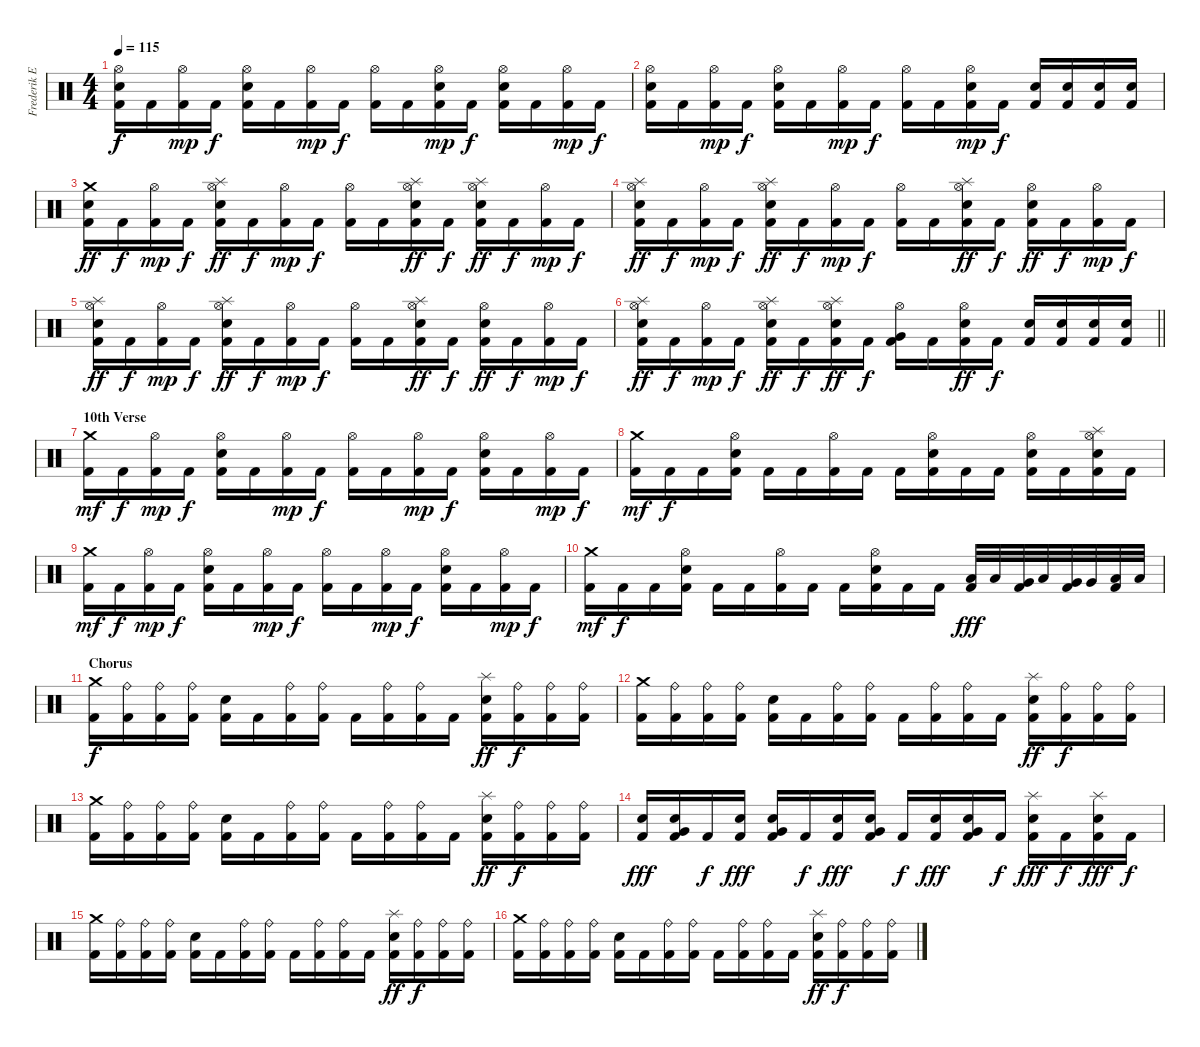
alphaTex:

\track ("Frederik Ehmke" "Frederik E") {instrument percussion}
\staff {score}
\articulation defaults
\ts (4 4)
\tempo 115
\clef neutral
\ks c
("Hi-Hat (open)" "Electric Snare (hit)" "Kick (hit) 2").16{dy f} "Kick (hit) 2".16 ("Hi-Hat (open)" "Kick (hit) 2").16{dy mp} "Kick (hit) 2".16{dy f} ("Hi-Hat (open)" "Electric Snare (hit)" "Kick (hit) 2").16 "Kick (hit) 2".16 ("Hi-Hat (open)" "Kick (hit) 2").16{dy mp} "Kick (hit) 2".16{dy f} ("Hi-Hat (open)" "Kick (hit) 2").16 "Kick (hit) 2".16 ("Hi-Hat (open)" "Electric Snare (hit)" "Kick (hit) 2").16{dy mp} "Kick (hit) 2".16{dy f} ("Hi-Hat (open)" "Electric Snare (hit)" "Kick (hit) 2").16 "Kick (hit) 2".16 ("Hi-Hat (open)" "Kick (hit) 2").16{dy mp} "Kick (hit) 2".16{dy f} |
("Hi-Hat (open)" "Electric Snare (hit)" "Kick (hit) 2").16 "Kick (hit) 2".16 ("Hi-Hat (open)" "Kick (hit) 2").16{dy mp} "Kick (hit) 2".16{dy f} ("Hi-Hat (open)" "Electric Snare (hit)" "Kick (hit) 2").16 "Kick (hit) 2".16 ("Hi-Hat (open)" "Kick (hit) 2").16{dy mp} "Kick (hit) 2".16{dy f} ("Hi-Hat (open)" "Kick (hit) 2").16 "Kick (hit) 2".16 ("Hi-Hat (open)" "Electric Snare (hit)" "Kick (hit) 2").16{dy mp} "Kick (hit) 2".16{dy f} ("Electric Snare (hit)" "Kick (hit) 2").16 ("Electric Snare (hit)" "Kick (hit) 2").16 ("Electric Snare (hit)" "Kick (hit) 2").16 ("Electric Snare (hit)" "Kick (hit) 2").16 |
("Crash medium (hit)" "Electric Snare (hit)" "Kick (hit) 2").16{dy ff} "Kick (hit) 2".16{dy f} ("Hi-Hat (open)" "Kick (hit) 2").16{dy mp} "Kick (hit) 2".16{dy f} ("Hi-Hat (open)" "Splash (hit)" "Electric Snare (hit)" "Kick (hit) 2").16{dy ff} "Kick (hit) 2".16{dy f} ("Hi-Hat (open)" "Kick (hit) 2").16{dy mp} "Kick (hit) 2".16{dy f} ("Hi-Hat (open)" "Kick (hit) 2").16 "Kick (hit) 2".16 ("Hi-Hat (open)" "Splash (hit)" "Electric Snare (hit)" "Kick (hit) 2").16{dy ff} "Kick (hit) 2".16{dy f} ("Hi-Hat (open)" "Splash (hit)" "Electric Snare (hit)" "Kick (hit) 2").16{dy ff} "Kick (hit) 2".16{dy f} ("Hi-Hat (open)" "Kick (hit) 2").16{dy mp} "Kick (hit) 2".16{dy f} |
("Hi-Hat (open)" "Splash (hit)" "Electric Snare (hit)" "Kick (hit) 2").16{dy ff} "Kick (hit) 2".16{dy f} ("Hi-Hat (open)" "Kick (hit) 2").16{dy mp} "Kick (hit) 2".16{dy f} ("Hi-Hat (open)" "Splash (hit)" "Electric Snare (hit)" "Kick (hit) 2").16{dy ff} "Kick (hit) 2".16{dy f} ("Hi-Hat (open)" "Kick (hit) 2").16{dy mp} "Kick (hit) 2".16{dy f} ("Hi-Hat (open)" "Kick (hit) 2").16 "Kick (hit) 2".16 ("Hi-Hat (open)" "Splash (hit)" "Electric Snare (hit)" "Kick (hit) 2").16{dy ff} "Kick (hit) 2".16{dy f} ("Hi-Hat (open)" "Electric Snare (hit)" "Kick (hit) 2").16{dy ff} "Kick (hit) 2".16{dy f} ("Hi-Hat (open)" "Kick (hit) 2").16{dy mp} "Kick (hit) 2".16{dy f} |
("Hi-Hat (open)" "Splash (hit)" "Electric Snare (hit)" "Kick (hit) 2").16{dy ff} "Kick (hit) 2".16{dy f} ("Hi-Hat (open)" "Kick (hit) 2").16{dy mp} "Kick (hit) 2".16{dy f} ("Hi-Hat (open)" "Splash (hit)" "Electric Snare (hit)" "Kick (hit) 2").16{dy ff} "Kick (hit) 2".16{dy f} ("Hi-Hat (open)" "Kick (hit) 2").16{dy mp} "Kick (hit) 2".16{dy f} ("Hi-Hat (open)" "Kick (hit) 2").16 "Kick (hit) 2".16 ("Hi-Hat (open)" "Splash (hit)" "Electric Snare (hit)" "Kick (hit) 2").16{dy ff} "Kick (hit) 2".16{dy f} ("Hi-Hat (open)" "Electric Snare (hit)" "Kick (hit) 2").16{dy ff} "Kick (hit) 2".16{dy f} ("Hi-Hat (open)" "Kick (hit) 2").16{dy mp} "Kick (hit) 2".16{dy f} |
\barLineRight lightlight
("Hi-Hat (open)" "Splash (hit)" "Electric Snare (hit)" "Kick (hit) 2").16{dy ff} "Kick (hit) 2".16{dy f} ("Hi-Hat (open)" "Kick (hit) 2").16{dy mp} "Kick (hit) 2".16{dy f} ("Hi-Hat (open)" "Splash (hit)" "Electric Snare (hit)" "Kick (hit) 2").16{dy ff} "Kick (hit) 2".16{dy f} ("Hi-Hat (open)" "Splash (hit)" "Electric Snare (hit)" "Kick (hit) 2").16{dy ff} "Kick (hit) 2".16{dy f} ("Hi-Hat (open)" "Very Low Tom (hit)" "Kick (hit) 2").16 "Kick (hit) 2".16 ("Hi-Hat (open)" "Electric Snare (hit)" "Kick (hit) 2").16{dy ff} "Kick (hit) 2".16{dy f} ("Electric Snare (hit)" "Kick (hit) 2").16 ("Electric Snare (hit)" "Kick (hit) 2").16 ("Electric Snare (hit)" "Kick (hit) 2").16 ("Electric Snare (hit)" "Kick (hit) 2").16 |
\section ("" "10th Verse")
("Crash medium (hit)" "Kick (hit) 2").16{dy mf} "Kick (hit) 2".16{dy f} ("Hi-Hat (open)" "Kick (hit) 2").16{dy mp} "Kick (hit) 2".16{dy f} ("Hi-Hat (open)" "Electric Snare (hit)" "Kick (hit) 2").16 "Kick (hit) 2".16 ("Hi-Hat (open)" "Kick (hit) 2").16{dy mp} "Kick (hit) 2".16{dy f} ("Hi-Hat (open)" "Kick (hit) 2").16 "Kick (hit) 2".16 ("Hi-Hat (open)" "Kick (hit) 2").16{dy mp} "Kick (hit) 2".16{dy f} ("Hi-Hat (open)" "Electric Snare (hit)" "Kick (hit) 2").16 "Kick (hit) 2".16 ("Hi-Hat (open)" "Kick (hit) 2").16{dy mp} "Kick (hit) 2".16{dy f} |
("Crash medium (hit)" "Kick (hit) 2").16{dy mf} "Kick (hit) 2".16{dy f} "Kick (hit) 2".16 ("Hi-Hat (open)" "Electric Snare (hit)" "Kick (hit) 2").16 "Kick (hit) 2".16 "Kick (hit) 2".16 ("Hi-Hat (open)" "Kick (hit) 2").16 "Kick (hit) 2".16 "Kick (hit) 2".16 ("Hi-Hat (open)" "Electric Snare (hit)" "Kick (hit) 2").16 "Kick (hit) 2".16 "Kick (hit) 2".16 ("Hi-Hat (open)" "Electric Snare (hit)" "Kick (hit) 2").16 "Kick (hit) 2".16 ("Hi-Hat (open)" "Splash (hit)" "Electric Snare (hit)" "Kick (hit) 2").16 "Kick (hit) 2".16 |
("Crash medium (hit)" "Kick (hit) 2").16{dy mf} "Kick (hit) 2".16{dy f} ("Hi-Hat (open)" "Kick (hit) 2").16{dy mp} "Kick (hit) 2".16{dy f} ("Hi-Hat (open)" "Electric Snare (hit)" "Kick (hit) 2").16 "Kick (hit) 2".16 ("Hi-Hat (open)" "Kick (hit) 2").16{dy mp} "Kick (hit) 2".16{dy f} ("Hi-Hat (open)" "Kick (hit) 2").16 "Kick (hit) 2".16 ("Hi-Hat (open)" "Kick (hit) 2").16{dy mp} "Kick (hit) 2".16{dy f} ("Hi-Hat (open)" "Electric Snare (hit)" "Kick (hit) 2").16 "Kick (hit) 2".16 ("Hi-Hat (open)" "Kick (hit) 2").16{dy mp} "Kick (hit) 2".16{dy f} |
("Crash medium (hit)" "Kick (hit) 2").16{dy mf} "Kick (hit) 2".16{dy f} "Kick (hit) 2".16 ("Hi-Hat (open)" "Electric Snare (hit)" "Kick (hit) 2").16 "Kick (hit) 2".16 "Kick (hit) 2".16 ("Hi-Hat (open)" "Kick (hit) 2").16 "Kick (hit) 2".16 "Kick (hit) 2".16 ("Hi-Hat (open)" "Electric Snare (hit)" "Kick (hit) 2").16 "Kick (hit) 2".16 "Kick (hit) 2".16 ("Low Tom (hit)" "Kick (hit) 2").32{dy fff} "Low Tom (hit)".32 ("Very Low Tom (hit)" "Kick (hit) 2").32 "Low Floor Tom (hit)".32 ("Very Low Tom (hit)" "Kick (hit) 2").32 "Very Low Tom (hit)".32 ("Low Floor Tom (hit)" "Kick (hit) 2").32 "Low Floor Tom (hit)".32 |
\section ("" "Chorus")
("Crash medium (hit)" "Kick (hit) 2").16{dy f} ("Ride (bell)" "Kick (hit) 2").16 ("Ride (bell)" "Kick (hit) 2").16 ("Ride (bell)" "Kick (hit) 2").16 ("Electric Snare (hit)" "Kick (hit) 2").16 "Kick (hit) 2".16 ("Ride (bell)" "Kick (hit) 2").16 ("Ride (bell)" "Kick (hit) 2").16 "Kick (hit) 2".16 ("Ride (bell)" "Kick (hit) 2").16 ("Ride (bell)" "Kick (hit) 2").16 "Kick (hit) 2".16 ("Splash (hit)" "Electric Snare (hit)" "Kick (hit) 2").16{dy ff} ("Ride (bell)" "Kick (hit) 2").16{dy f} ("Ride (bell)" "Kick (hit) 2").16 ("Ride (bell)" "Kick (hit) 2").16 |
("Crash medium (hit)" "Kick (hit) 2").16 ("Ride (bell)" "Kick (hit) 2").16 ("Ride (bell)" "Kick (hit) 2").16 ("Ride (bell)" "Kick (hit) 2").16 ("Electric Snare (hit)" "Kick (hit) 2").16 "Kick (hit) 2".16 ("Ride (bell)" "Kick (hit) 2").16 ("Ride (bell)" "Kick (hit) 2").16 "Kick (hit) 2".16 ("Ride (bell)" "Kick (hit) 2").16 ("Ride (bell)" "Kick (hit) 2").16 "Kick (hit) 2".16 ("Splash (hit)" "Electric Snare (hit)" "Kick (hit) 2").16{dy ff} ("Ride (bell)" "Kick (hit) 2").16{dy f} ("Ride (bell)" "Kick (hit) 2").16 ("Ride (bell)" "Kick (hit) 2").16 |
("Crash medium (hit)" "Kick (hit) 2").16 ("Ride (bell)" "Kick (hit) 2").16 ("Ride (bell)" "Kick (hit) 2").16 ("Ride (bell)" "Kick (hit) 2").16 ("Electric Snare (hit)" "Kick (hit) 2").16 "Kick (hit) 2".16 ("Ride (bell)" "Kick (hit) 2").16 ("Ride (bell)" "Kick (hit) 2").16 "Kick (hit) 2".16 ("Ride (bell)" "Kick (hit) 2").16 ("Ride (bell)" "Kick (hit) 2").16 "Kick (hit) 2".16 ("Splash (hit)" "Electric Snare (hit)" "Kick (hit) 2").16{dy ff} ("Ride (bell)" "Kick (hit) 2").16{dy f} ("Ride (bell)" "Kick (hit) 2").16 ("Ride (bell)" "Kick (hit) 2").16 |
("Electric Snare (hit)" "Kick (hit) 2").16{dy fff} ("Electric Snare (hit)" "Very Low Tom (hit)" "Kick (hit) 2").16 "Kick (hit) 2".16{dy f} ("Electric Snare (hit)" "Kick (hit) 2").16{dy fff} ("Electric Snare (hit)" "Very Low Tom (hit)" "Kick (hit) 2").16 "Kick (hit) 2".16{dy f} ("Electric Snare (hit)" "Kick (hit) 2").16{dy fff} ("Electric Snare (hit)" "Very Low Tom (hit)" "Kick (hit) 2").16 "Kick (hit) 2".16{dy f} ("Electric Snare (hit)" "Kick (hit) 2").16{dy fff} ("Electric Snare (hit)" "Very Low Tom (hit)" "Kick (hit) 2").16 "Kick (hit) 2".16{dy f} ("Splash (hit)" "Electric Snare (hit)" "Kick (hit) 2").16{dy fff} "Kick (hit) 2".16{dy f} ("Splash (hit)" "Electric Snare (hit)" "Kick (hit) 2").16{dy fff} "Kick (hit) 2".16{dy f} |
("Crash medium (hit)" "Kick (hit) 2").16 ("Ride (bell)" "Kick (hit) 2").16 ("Ride (bell)" "Kick (hit) 2").16 ("Ride (bell)" "Kick (hit) 2").16 ("Electric Snare (hit)" "Kick (hit) 2").16 "Kick (hit) 2".16 ("Ride (bell)" "Kick (hit) 2").16 ("Ride (bell)" "Kick (hit) 2").16 "Kick (hit) 2".16 ("Ride (bell)" "Kick (hit) 2").16 ("Ride (bell)" "Kick (hit) 2").16 "Kick (hit) 2".16 ("Splash (hit)" "Electric Snare (hit)" "Kick (hit) 2").16{dy ff} ("Ride (bell)" "Kick (hit) 2").16{dy f} ("Ride (bell)" "Kick (hit) 2").16 ("Ride (bell)" "Kick (hit) 2").16 |
("Crash medium (hit)" "Kick (hit) 2").16 ("Ride (bell)" "Kick (hit) 2").16 ("Ride (bell)" "Kick (hit) 2").16 ("Ride (bell)" "Kick (hit) 2").16 ("Electric Snare (hit)" "Kick (hit) 2").16 "Kick (hit) 2".16 ("Ride (bell)" "Kick (hit) 2").16 ("Ride (bell)" "Kick (hit) 2").16 "Kick (hit) 2".16 ("Ride (bell)" "Kick (hit) 2").16 ("Ride (bell)" "Kick (hit) 2").16 "Kick (hit) 2".16 ("Splash (hit)" "Electric Snare (hit)" "Kick (hit) 2").16{dy ff} ("Ride (bell)" "Kick (hit) 2").16{dy f} ("Ride (bell)" "Kick (hit) 2").16 ("Ride (bell)" "Kick (hit) 2").16
